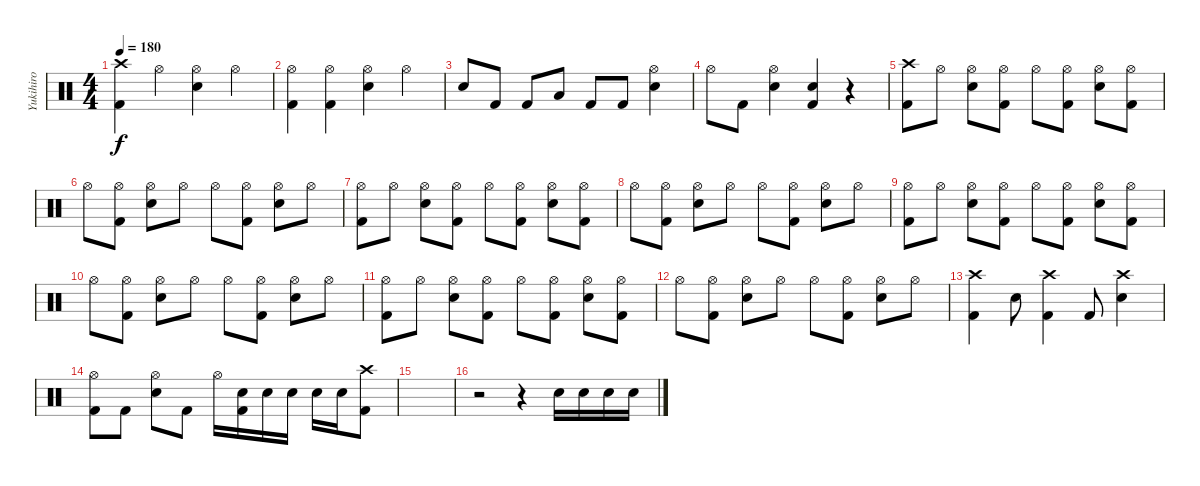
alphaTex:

\track ("Yukihiro" "Yukihiro") {instrument percussion}
\staff {score}
\articulation defaults
\ts (4 4)
\tempo 180
\clef neutral
\ks c
("Crash high (hit)" "Kick (hit) 2").4{dy f} "Hi-Hat (open)".4 ("Hi-Hat (open)" "Electric Snare (hit)").4 "Hi-Hat (open)".4 |
("Hi-Hat (open)" "Kick (hit) 2").4 ("Hi-Hat (open)" "Kick (hit) 2").4 ("Hi-Hat (open)" "Electric Snare (hit)").4 "Hi-Hat (open)".4 |
"Electric Snare (hit)".8 "Kick (hit) 2".8 "Kick (hit) 2".8 "Low Tom (hit)".8 "Kick (hit) 2".8 "Kick (hit) 2".8 ("Hi-Hat (open)" "Electric Snare (hit)").4 |
"Hi-Hat (open)".8 "Kick (hit) 2".8 ("Hi-Hat (open)" "Electric Snare (hit)").4 ("Electric Snare (hit)" "Kick (hit) 2").4 r.4 |
("Crash high (hit)" "Kick (hit) 2").8 "Hi-Hat (open)".8 ("Hi-Hat (open)" "Electric Snare (hit)").8 ("Hi-Hat (open)" "Kick (hit) 2").8 "Hi-Hat (open)".8 ("Hi-Hat (open)" "Kick (hit) 2").8 ("Hi-Hat (open)" "Electric Snare (hit)").8 ("Hi-Hat (open)" "Kick (hit) 2").8 |
"Hi-Hat (open)".8 ("Hi-Hat (open)" "Kick (hit) 2").8 ("Hi-Hat (open)" "Electric Snare (hit)").8 "Hi-Hat (open)".8 "Hi-Hat (open)".8 ("Hi-Hat (open)" "Kick (hit) 2").8 ("Hi-Hat (open)" "Electric Snare (hit)").8 "Hi-Hat (open)".8 |
("Hi-Hat (open)" "Kick (hit) 2").8 "Hi-Hat (open)".8 ("Hi-Hat (open)" "Electric Snare (hit)").8 ("Hi-Hat (open)" "Kick (hit) 2").8 "Hi-Hat (open)".8 ("Hi-Hat (open)" "Kick (hit) 2").8 ("Hi-Hat (open)" "Electric Snare (hit)").8 ("Hi-Hat (open)" "Kick (hit) 2").8 |
"Hi-Hat (open)".8 ("Hi-Hat (open)" "Kick (hit) 2").8 ("Hi-Hat (open)" "Electric Snare (hit)").8 "Hi-Hat (open)".8 "Hi-Hat (open)".8 ("Hi-Hat (open)" "Kick (hit) 2").8 ("Hi-Hat (open)" "Electric Snare (hit)").8 "Hi-Hat (open)".8 |
("Hi-Hat (open)" "Kick (hit) 2").8 "Hi-Hat (open)".8 ("Hi-Hat (open)" "Electric Snare (hit)").8 ("Hi-Hat (open)" "Kick (hit) 2").8 "Hi-Hat (open)".8 ("Hi-Hat (open)" "Kick (hit) 2").8 ("Hi-Hat (open)" "Electric Snare (hit)").8 ("Hi-Hat (open)" "Kick (hit) 2").8 |
"Hi-Hat (open)".8 ("Hi-Hat (open)" "Kick (hit) 2").8 ("Hi-Hat (open)" "Electric Snare (hit)").8 "Hi-Hat (open)".8 "Hi-Hat (open)".8 ("Hi-Hat (open)" "Kick (hit) 2").8 ("Hi-Hat (open)" "Electric Snare (hit)").8 "Hi-Hat (open)".8 |
("Hi-Hat (open)" "Kick (hit) 2").8 "Hi-Hat (open)".8 ("Hi-Hat (open)" "Electric Snare (hit)").8 ("Hi-Hat (open)" "Kick (hit) 2").8 "Hi-Hat (open)".8 ("Hi-Hat (open)" "Kick (hit) 2").8 ("Hi-Hat (open)" "Electric Snare (hit)").8 ("Hi-Hat (open)" "Kick (hit) 2").8 |
"Hi-Hat (open)".8 ("Hi-Hat (open)" "Kick (hit) 2").8 ("Hi-Hat (open)" "Electric Snare (hit)").8 "Hi-Hat (open)".8 "Hi-Hat (open)".8 ("Hi-Hat (open)" "Kick (hit) 2").8 ("Hi-Hat (open)" "Electric Snare (hit)").8 "Hi-Hat (open)".8 |
("Crash high (hit)" "Kick (hit) 2").4 "Electric Snare (hit)".8 ("Crash high (hit)" "Kick (hit) 2").4 "Kick (hit) 2".8 ("Crash high (hit)" "Electric Snare (hit)").4 |
("Hi-Hat (open)" "Kick (hit) 2").8 "Kick (hit) 2".8 ("Hi-Hat (open)" "Electric Snare (hit)").8 "Kick (hit) 2".8 "Hi-Hat (open)".16 ("Electric Snare (hit)" "Kick (hit) 2").16 "Electric Snare (hit)".16 "Electric Snare (hit)".16 "Electric Snare (hit)".16 "Electric Snare (hit)".16 ("Crash high (hit)" "Kick (hit) 2").8 |
|
r.2 r.4 "Electric Snare (hit)".16 "Electric Snare (hit)".16 "Electric Snare (hit)".16 "Electric Snare (hit)".16
